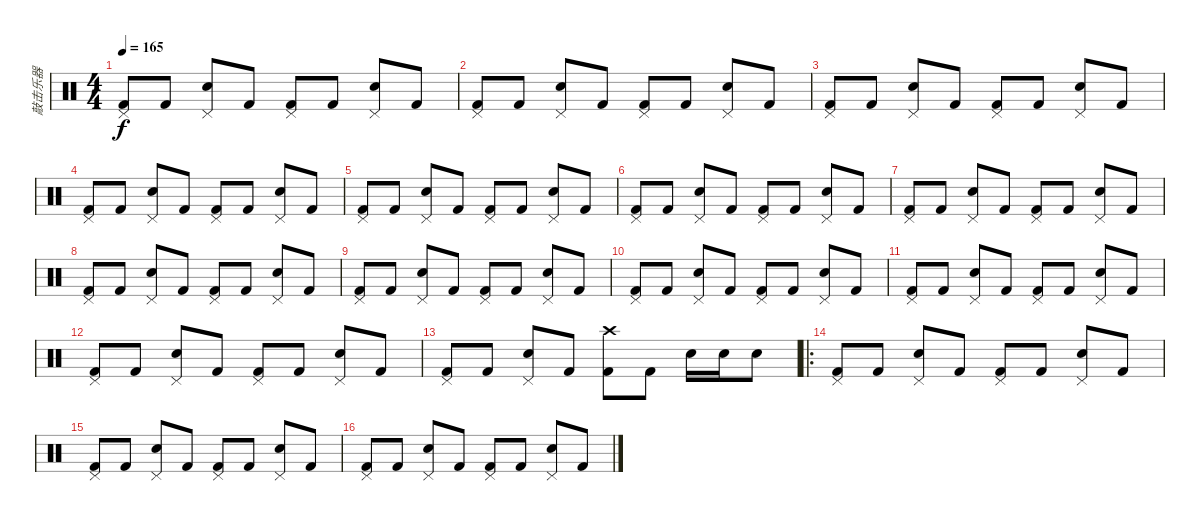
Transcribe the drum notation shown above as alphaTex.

\track ("敲击乐器" "敲击乐器") {instrument percussion}
\staff {score}
\articulation defaults
\ts (4 4)
\tempo 165
\clef neutral
\ks c
("Kick (hit) 2" "Pedal Hi-Hat (hit)").8{dy f} "Kick (hit) 2".8 ("Snare (hit) 2" "Pedal Hi-Hat (hit)").8 "Kick (hit) 2".8 ("Kick (hit) 2" "Pedal Hi-Hat (hit)").8 "Kick (hit) 2".8 ("Snare (hit) 2" "Pedal Hi-Hat (hit)").8 "Kick (hit) 2".8 |
("Kick (hit) 2" "Pedal Hi-Hat (hit)").8 "Kick (hit) 2".8 ("Snare (hit) 2" "Pedal Hi-Hat (hit)").8 "Kick (hit) 2".8 ("Kick (hit) 2" "Pedal Hi-Hat (hit)").8 "Kick (hit) 2".8 ("Snare (hit) 2" "Pedal Hi-Hat (hit)").8 "Kick (hit) 2".8 |
("Kick (hit) 2" "Pedal Hi-Hat (hit)").8 "Kick (hit) 2".8 ("Snare (hit) 2" "Pedal Hi-Hat (hit)").8 "Kick (hit) 2".8 ("Kick (hit) 2" "Pedal Hi-Hat (hit)").8 "Kick (hit) 2".8 ("Snare (hit) 2" "Pedal Hi-Hat (hit)").8 "Kick (hit) 2".8 |
("Kick (hit) 2" "Pedal Hi-Hat (hit)").8 "Kick (hit) 2".8 ("Snare (hit) 2" "Pedal Hi-Hat (hit)").8 "Kick (hit) 2".8 ("Kick (hit) 2" "Pedal Hi-Hat (hit)").8 "Kick (hit) 2".8 ("Snare (hit) 2" "Pedal Hi-Hat (hit)").8 "Kick (hit) 2".8 |
("Kick (hit) 2" "Pedal Hi-Hat (hit)").8 "Kick (hit) 2".8 ("Snare (hit) 2" "Pedal Hi-Hat (hit)").8 "Kick (hit) 2".8 ("Kick (hit) 2" "Pedal Hi-Hat (hit)").8 "Kick (hit) 2".8 ("Snare (hit) 2" "Pedal Hi-Hat (hit)").8 "Kick (hit) 2".8 |
("Kick (hit) 2" "Pedal Hi-Hat (hit)").8 "Kick (hit) 2".8 ("Snare (hit) 2" "Pedal Hi-Hat (hit)").8 "Kick (hit) 2".8 ("Kick (hit) 2" "Pedal Hi-Hat (hit)").8 "Kick (hit) 2".8 ("Snare (hit) 2" "Pedal Hi-Hat (hit)").8 "Kick (hit) 2".8 |
("Kick (hit) 2" "Pedal Hi-Hat (hit)").8 "Kick (hit) 2".8 ("Snare (hit) 2" "Pedal Hi-Hat (hit)").8 "Kick (hit) 2".8 ("Kick (hit) 2" "Pedal Hi-Hat (hit)").8 "Kick (hit) 2".8 ("Snare (hit) 2" "Pedal Hi-Hat (hit)").8 "Kick (hit) 2".8 |
("Kick (hit) 2" "Pedal Hi-Hat (hit)").8 "Kick (hit) 2".8 ("Snare (hit) 2" "Pedal Hi-Hat (hit)").8 "Kick (hit) 2".8 ("Kick (hit) 2" "Pedal Hi-Hat (hit)").8 "Kick (hit) 2".8 ("Snare (hit) 2" "Pedal Hi-Hat (hit)").8 "Kick (hit) 2".8 |
("Kick (hit) 2" "Pedal Hi-Hat (hit)").8 "Kick (hit) 2".8 ("Snare (hit) 2" "Pedal Hi-Hat (hit)").8 "Kick (hit) 2".8 ("Kick (hit) 2" "Pedal Hi-Hat (hit)").8 "Kick (hit) 2".8 ("Snare (hit) 2" "Pedal Hi-Hat (hit)").8 "Kick (hit) 2".8 |
("Kick (hit) 2" "Pedal Hi-Hat (hit)").8 "Kick (hit) 2".8 ("Snare (hit) 2" "Pedal Hi-Hat (hit)").8 "Kick (hit) 2".8 ("Kick (hit) 2" "Pedal Hi-Hat (hit)").8 "Kick (hit) 2".8 ("Snare (hit) 2" "Pedal Hi-Hat (hit)").8 "Kick (hit) 2".8 |
("Kick (hit) 2" "Pedal Hi-Hat (hit)").8 "Kick (hit) 2".8 ("Snare (hit) 2" "Pedal Hi-Hat (hit)").8 "Kick (hit) 2".8 ("Kick (hit) 2" "Pedal Hi-Hat (hit)").8 "Kick (hit) 2".8 ("Snare (hit) 2" "Pedal Hi-Hat (hit)").8 "Kick (hit) 2".8 |
("Kick (hit) 2" "Pedal Hi-Hat (hit)").8 "Kick (hit) 2".8 ("Snare (hit) 2" "Pedal Hi-Hat (hit)").8 "Kick (hit) 2".8 ("Kick (hit) 2" "Pedal Hi-Hat (hit)").8 "Kick (hit) 2".8 ("Snare (hit) 2" "Pedal Hi-Hat (hit)").8 "Kick (hit) 2".8 |
("Kick (hit) 2" "Pedal Hi-Hat (hit)").8 "Kick (hit) 2".8 ("Snare (hit) 2" "Pedal Hi-Hat (hit)").8 "Kick (hit) 2".8 ("Kick (hit) 2" "Crash high (hit)").8 "Kick (hit) 2".8 "Snare (hit) 2".16 "Snare (hit) 2".16 "Snare (hit) 2".8 |
\ro
("Kick (hit) 2" "Pedal Hi-Hat (hit)").8 "Kick (hit) 2".8 ("Snare (hit) 2" "Pedal Hi-Hat (hit)").8 "Kick (hit) 2".8 ("Kick (hit) 2" "Pedal Hi-Hat (hit)").8 "Kick (hit) 2".8 ("Snare (hit) 2" "Pedal Hi-Hat (hit)").8 "Kick (hit) 2".8 |
("Kick (hit) 2" "Pedal Hi-Hat (hit)").8 "Kick (hit) 2".8 ("Snare (hit) 2" "Pedal Hi-Hat (hit)").8 "Kick (hit) 2".8 ("Kick (hit) 2" "Pedal Hi-Hat (hit)").8 "Kick (hit) 2".8 ("Snare (hit) 2" "Pedal Hi-Hat (hit)").8 "Kick (hit) 2".8 |
("Kick (hit) 2" "Pedal Hi-Hat (hit)").8 "Kick (hit) 2".8 ("Snare (hit) 2" "Pedal Hi-Hat (hit)").8 "Kick (hit) 2".8 ("Kick (hit) 2" "Pedal Hi-Hat (hit)").8 "Kick (hit) 2".8 ("Snare (hit) 2" "Pedal Hi-Hat (hit)").8 "Kick (hit) 2".8
